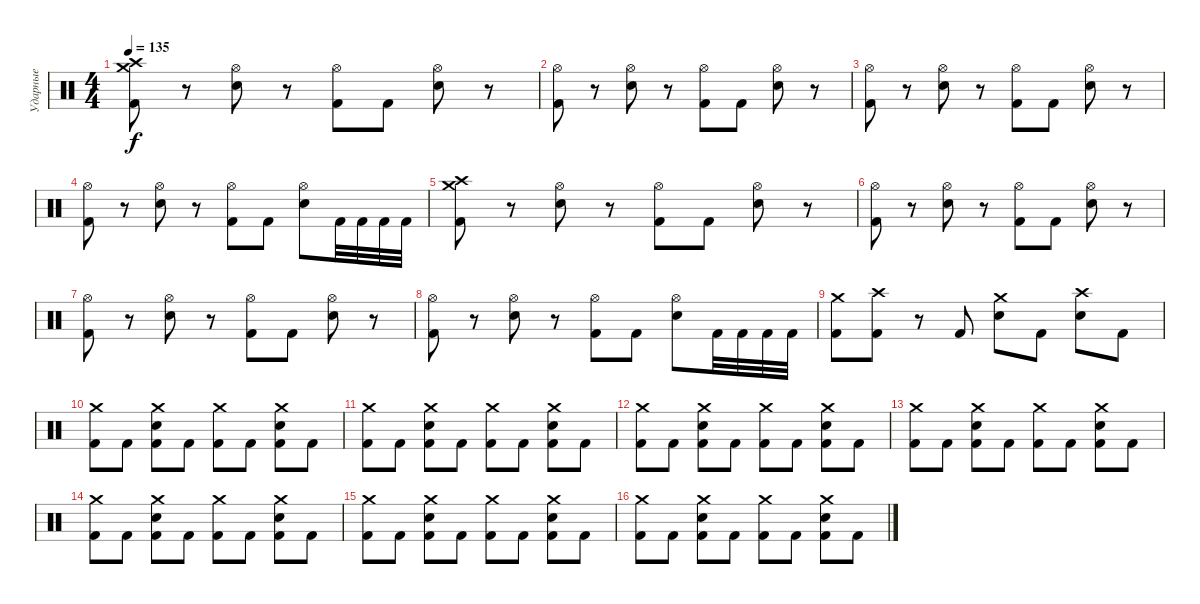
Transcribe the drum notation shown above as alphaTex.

\track ("Ударные" "Ударные") {instrument percussion}
\staff {score}
\articulation defaults
\ts (4 4)
\tempo 135
\clef neutral
\ks c
("Crash medium (hit)" "Crash high (hit)" "Kick (hit) 2").8{dy f} r.8 ("Hi-Hat (open)" "Electric Snare (hit)").8 r.8 ("Hi-Hat (open)" "Kick (hit) 2").8 "Kick (hit) 2".8 ("Hi-Hat (open)" "Electric Snare (hit)").8 r.8 |
("Hi-Hat (open)" "Kick (hit) 2").8 r.8 ("Hi-Hat (open)" "Electric Snare (hit)").8 r.8 ("Hi-Hat (open)" "Kick (hit) 2").8 "Kick (hit) 2".8 ("Hi-Hat (open)" "Electric Snare (hit)").8 r.8 |
("Hi-Hat (open)" "Kick (hit) 2").8 r.8 ("Hi-Hat (open)" "Electric Snare (hit)").8 r.8 ("Hi-Hat (open)" "Kick (hit) 2").8 "Kick (hit) 2".8 ("Hi-Hat (open)" "Electric Snare (hit)").8 r.8 |
("Hi-Hat (open)" "Kick (hit) 2").8 r.8 ("Hi-Hat (open)" "Electric Snare (hit)").8 r.8 ("Hi-Hat (open)" "Kick (hit) 2").8 "Kick (hit) 2".8 ("Hi-Hat (open)" "Electric Snare (hit)").8 "Kick (hit) 2".32 "Kick (hit) 2".32 "Kick (hit) 2".32 "Kick (hit) 2".32 |
("Crash medium (hit)" "Crash high (hit)" "Kick (hit) 2").8 r.8 ("Hi-Hat (open)" "Electric Snare (hit)").8 r.8 ("Hi-Hat (open)" "Kick (hit) 2").8 "Kick (hit) 2".8 ("Hi-Hat (open)" "Electric Snare (hit)").8 r.8 |
("Hi-Hat (open)" "Kick (hit) 2").8 r.8 ("Hi-Hat (open)" "Electric Snare (hit)").8 r.8 ("Hi-Hat (open)" "Kick (hit) 2").8 "Kick (hit) 2".8 ("Hi-Hat (open)" "Electric Snare (hit)").8 r.8 |
("Hi-Hat (open)" "Kick (hit) 2").8 r.8 ("Hi-Hat (open)" "Electric Snare (hit)").8 r.8 ("Hi-Hat (open)" "Kick (hit) 2").8 "Kick (hit) 2".8 ("Hi-Hat (open)" "Electric Snare (hit)").8 r.8 |
("Hi-Hat (open)" "Kick (hit) 2").8 r.8 ("Hi-Hat (open)" "Electric Snare (hit)").8 r.8 ("Hi-Hat (open)" "Kick (hit) 2").8 "Kick (hit) 2".8 ("Hi-Hat (open)" "Electric Snare (hit)").8 "Kick (hit) 2".32 "Kick (hit) 2".32 "Kick (hit) 2".32 "Kick (hit) 2".32 |
("Crash medium (hit)" "Kick (hit) 2").8 ("Crash high (hit)" "Kick (hit) 2").8 r.8 "Kick (hit) 2".8 ("Crash medium (hit)" "Electric Snare (hit)").8 "Kick (hit) 2".8 ("Crash high (hit)" "Electric Snare (hit)").8 "Kick (hit) 2".8 |
("Crash medium (hit)" "Kick (hit) 2").8 "Kick (hit) 2".8 ("Crash medium (hit)" "Electric Snare (hit)" "Kick (hit) 2").8 "Kick (hit) 2".8 ("Crash medium (hit)" "Kick (hit) 2").8 "Kick (hit) 2".8 ("Crash medium (hit)" "Electric Snare (hit)" "Kick (hit) 2").8 "Kick (hit) 2".8 |
("Crash medium (hit)" "Kick (hit) 2").8 "Kick (hit) 2".8 ("Crash medium (hit)" "Electric Snare (hit)" "Kick (hit) 2").8 "Kick (hit) 2".8 ("Crash medium (hit)" "Kick (hit) 2").8 "Kick (hit) 2".8 ("Crash medium (hit)" "Electric Snare (hit)" "Kick (hit) 2").8 "Kick (hit) 2".8 |
("Crash medium (hit)" "Kick (hit) 2").8 "Kick (hit) 2".8 ("Crash medium (hit)" "Electric Snare (hit)" "Kick (hit) 2").8 "Kick (hit) 2".8 ("Crash medium (hit)" "Kick (hit) 2").8 "Kick (hit) 2".8 ("Crash medium (hit)" "Electric Snare (hit)" "Kick (hit) 2").8 "Kick (hit) 2".8 |
("Crash medium (hit)" "Kick (hit) 2").8 "Kick (hit) 2".8 ("Crash medium (hit)" "Electric Snare (hit)" "Kick (hit) 2").8 "Kick (hit) 2".8 ("Crash medium (hit)" "Kick (hit) 2").8 "Kick (hit) 2".8 ("Crash medium (hit)" "Electric Snare (hit)" "Kick (hit) 2").8 "Kick (hit) 2".8 |
("Crash medium (hit)" "Kick (hit) 2").8 "Kick (hit) 2".8 ("Crash medium (hit)" "Electric Snare (hit)" "Kick (hit) 2").8 "Kick (hit) 2".8 ("Crash medium (hit)" "Kick (hit) 2").8 "Kick (hit) 2".8 ("Crash medium (hit)" "Electric Snare (hit)" "Kick (hit) 2").8 "Kick (hit) 2".8 |
("Crash medium (hit)" "Kick (hit) 2").8 "Kick (hit) 2".8 ("Crash medium (hit)" "Electric Snare (hit)" "Kick (hit) 2").8 "Kick (hit) 2".8 ("Crash medium (hit)" "Kick (hit) 2").8 "Kick (hit) 2".8 ("Crash medium (hit)" "Electric Snare (hit)" "Kick (hit) 2").8 "Kick (hit) 2".8 |
("Crash medium (hit)" "Kick (hit) 2").8 "Kick (hit) 2".8 ("Crash medium (hit)" "Electric Snare (hit)" "Kick (hit) 2").8 "Kick (hit) 2".8 ("Crash medium (hit)" "Kick (hit) 2").8 "Kick (hit) 2".8 ("Crash medium (hit)" "Electric Snare (hit)" "Kick (hit) 2").8 "Kick (hit) 2".8
